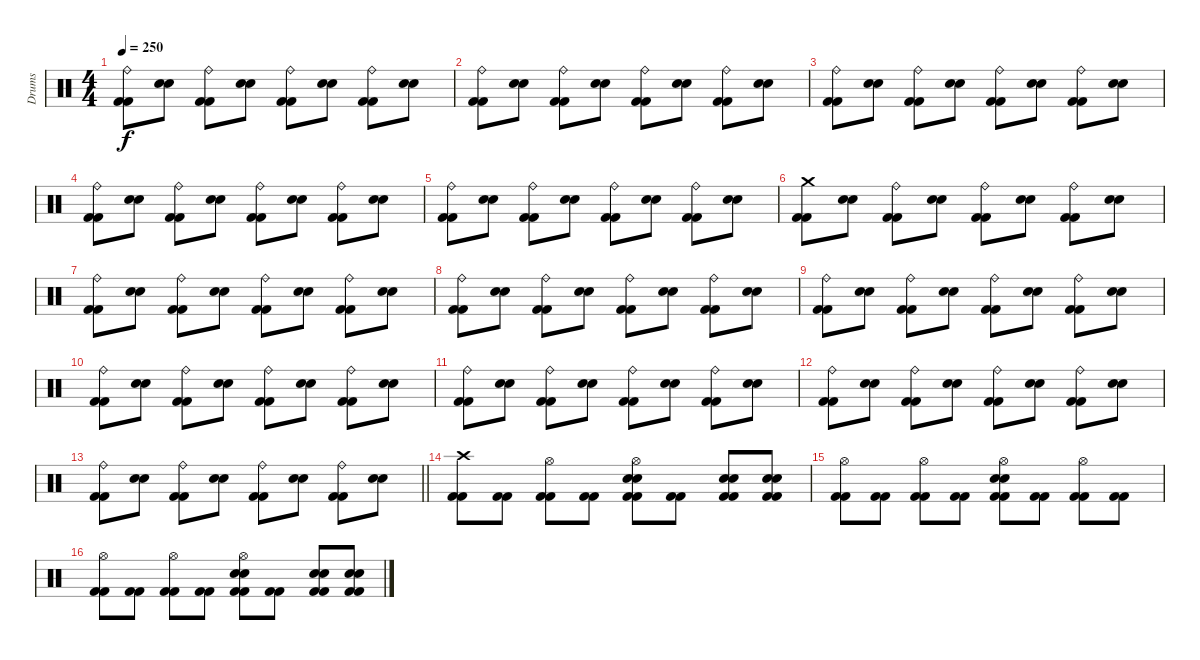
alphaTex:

\track ("Drums" "Drums") {instrument percussion}
\staff {score}
\articulation defaults
\ts (4 4)
\tempo 250
\clef neutral
\ks c
("Kick (hit) 2" "Kick (hit) 2" "Ride (bell)").8{dy f} ("Electric Snare (hit)" "Electric Snare (hit)").8 ("Kick (hit) 2" "Kick (hit) 2" "Ride (bell)").8 ("Electric Snare (hit)" "Electric Snare (hit)").8 ("Kick (hit) 2" "Kick (hit) 2" "Ride (bell)").8 ("Electric Snare (hit)" "Electric Snare (hit)").8 ("Kick (hit) 2" "Kick (hit) 2" "Ride (bell)").8 ("Electric Snare (hit)" "Electric Snare (hit)").8 |
("Kick (hit) 2" "Kick (hit) 2" "Ride (bell)").8 ("Electric Snare (hit)" "Electric Snare (hit)").8 ("Kick (hit) 2" "Kick (hit) 2" "Ride (bell)").8 ("Electric Snare (hit)" "Electric Snare (hit)").8 ("Kick (hit) 2" "Kick (hit) 2" "Ride (bell)").8 ("Electric Snare (hit)" "Electric Snare (hit)").8 ("Kick (hit) 2" "Kick (hit) 2" "Ride (bell)").8 ("Electric Snare (hit)" "Electric Snare (hit)").8 |
("Kick (hit) 2" "Kick (hit) 2" "Ride (bell)").8 ("Electric Snare (hit)" "Electric Snare (hit)").8 ("Kick (hit) 2" "Kick (hit) 2" "Ride (bell)").8 ("Electric Snare (hit)" "Electric Snare (hit)").8 ("Kick (hit) 2" "Kick (hit) 2" "Ride (bell)").8 ("Electric Snare (hit)" "Electric Snare (hit)").8 ("Kick (hit) 2" "Kick (hit) 2" "Ride (bell)").8 ("Electric Snare (hit)" "Electric Snare (hit)").8 |
("Kick (hit) 2" "Kick (hit) 2" "Ride (bell)").8 ("Electric Snare (hit)" "Electric Snare (hit)").8 ("Kick (hit) 2" "Kick (hit) 2" "Ride (bell)").8 ("Electric Snare (hit)" "Electric Snare (hit)").8 ("Kick (hit) 2" "Kick (hit) 2" "Ride (bell)").8 ("Electric Snare (hit)" "Electric Snare (hit)").8 ("Kick (hit) 2" "Kick (hit) 2" "Ride (bell)").8 ("Electric Snare (hit)" "Electric Snare (hit)").8 |
("Kick (hit) 2" "Kick (hit) 2" "Ride (bell)").8 ("Electric Snare (hit)" "Electric Snare (hit)").8 ("Kick (hit) 2" "Kick (hit) 2" "Ride (bell)").8 ("Electric Snare (hit)" "Electric Snare (hit)").8 ("Kick (hit) 2" "Kick (hit) 2" "Ride (bell)").8 ("Electric Snare (hit)" "Electric Snare (hit)").8 ("Kick (hit) 2" "Kick (hit) 2" "Ride (bell)").8 ("Electric Snare (hit)" "Electric Snare (hit)").8 |
("Kick (hit) 2" "Kick (hit) 2" "Crash medium (hit)").8 ("Electric Snare (hit)" "Electric Snare (hit)").8 ("Kick (hit) 2" "Kick (hit) 2" "Ride (bell)").8 ("Electric Snare (hit)" "Electric Snare (hit)").8 ("Kick (hit) 2" "Kick (hit) 2" "Ride (bell)").8 ("Electric Snare (hit)" "Electric Snare (hit)").8 ("Kick (hit) 2" "Kick (hit) 2" "Ride (bell)").8 ("Electric Snare (hit)" "Electric Snare (hit)").8 |
("Kick (hit) 2" "Kick (hit) 2" "Ride (bell)").8 ("Electric Snare (hit)" "Electric Snare (hit)").8 ("Kick (hit) 2" "Kick (hit) 2" "Ride (bell)").8 ("Electric Snare (hit)" "Electric Snare (hit)").8 ("Kick (hit) 2" "Kick (hit) 2" "Ride (bell)").8 ("Electric Snare (hit)" "Electric Snare (hit)").8 ("Kick (hit) 2" "Kick (hit) 2" "Ride (bell)").8 ("Electric Snare (hit)" "Electric Snare (hit)").8 |
("Kick (hit) 2" "Kick (hit) 2" "Ride (bell)").8 ("Electric Snare (hit)" "Electric Snare (hit)").8 ("Kick (hit) 2" "Kick (hit) 2" "Ride (bell)").8 ("Electric Snare (hit)" "Electric Snare (hit)").8 ("Kick (hit) 2" "Kick (hit) 2" "Ride (bell)").8 ("Electric Snare (hit)" "Electric Snare (hit)").8 ("Kick (hit) 2" "Kick (hit) 2" "Ride (bell)").8 ("Electric Snare (hit)" "Electric Snare (hit)").8 |
("Kick (hit) 2" "Kick (hit) 2" "Ride (bell)").8 ("Electric Snare (hit)" "Electric Snare (hit)").8 ("Kick (hit) 2" "Kick (hit) 2" "Ride (bell)").8 ("Electric Snare (hit)" "Electric Snare (hit)").8 ("Kick (hit) 2" "Kick (hit) 2" "Ride (bell)").8 ("Electric Snare (hit)" "Electric Snare (hit)").8 ("Kick (hit) 2" "Kick (hit) 2" "Ride (bell)").8 ("Electric Snare (hit)" "Electric Snare (hit)").8 |
("Kick (hit) 2" "Kick (hit) 2" "Ride (bell)").8 ("Electric Snare (hit)" "Electric Snare (hit)").8 ("Kick (hit) 2" "Kick (hit) 2" "Ride (bell)").8 ("Electric Snare (hit)" "Electric Snare (hit)").8 ("Kick (hit) 2" "Kick (hit) 2" "Ride (bell)").8 ("Electric Snare (hit)" "Electric Snare (hit)").8 ("Kick (hit) 2" "Kick (hit) 2" "Ride (bell)").8 ("Electric Snare (hit)" "Electric Snare (hit)").8 |
("Kick (hit) 2" "Kick (hit) 2" "Ride (bell)").8 ("Electric Snare (hit)" "Electric Snare (hit)").8 ("Kick (hit) 2" "Kick (hit) 2" "Ride (bell)").8 ("Electric Snare (hit)" "Electric Snare (hit)").8 ("Kick (hit) 2" "Kick (hit) 2" "Ride (bell)").8 ("Electric Snare (hit)" "Electric Snare (hit)").8 ("Kick (hit) 2" "Kick (hit) 2" "Ride (bell)").8 ("Electric Snare (hit)" "Electric Snare (hit)").8 |
("Kick (hit) 2" "Kick (hit) 2" "Ride (bell)").8 ("Electric Snare (hit)" "Electric Snare (hit)").8 ("Kick (hit) 2" "Kick (hit) 2" "Ride (bell)").8 ("Electric Snare (hit)" "Electric Snare (hit)").8 ("Kick (hit) 2" "Kick (hit) 2" "Ride (bell)").8 ("Electric Snare (hit)" "Electric Snare (hit)").8 ("Kick (hit) 2" "Kick (hit) 2" "Ride (bell)").8 ("Electric Snare (hit)" "Electric Snare (hit)").8 |
\barLineRight lightlight
("Kick (hit) 2" "Kick (hit) 2" "Ride (bell)").8 ("Electric Snare (hit)" "Electric Snare (hit)").8 ("Kick (hit) 2" "Kick (hit) 2" "Ride (bell)").8 ("Electric Snare (hit)" "Electric Snare (hit)").8 ("Kick (hit) 2" "Kick (hit) 2" "Ride (bell)").8 ("Electric Snare (hit)" "Electric Snare (hit)").8 ("Kick (hit) 2" "Kick (hit) 2" "Ride (bell)").8 ("Electric Snare (hit)" "Electric Snare (hit)").8 |
("Kick (hit) 2" "Kick (hit) 2" "Crash high (hit)").8 ("Kick (hit) 2" "Kick (hit) 2").8 ("Kick (hit) 2" "Kick (hit) 2" "Hi-Hat (open)").8 ("Kick (hit) 2" "Kick (hit) 2").8 ("Kick (hit) 2" "Kick (hit) 2" "Electric Snare (hit)" "Electric Snare (hit)" "Hi-Hat (open)").8 ("Kick (hit) 2" "Kick (hit) 2").8 ("Kick (hit) 2" "Kick (hit) 2" "Electric Snare (hit)" "Electric Snare (hit)").8 ("Kick (hit) 2" "Kick (hit) 2" "Electric Snare (hit)" "Electric Snare (hit)").8 |
("Kick (hit) 2" "Kick (hit) 2" "Hi-Hat (open)").8 ("Kick (hit) 2" "Kick (hit) 2").8 ("Kick (hit) 2" "Kick (hit) 2" "Hi-Hat (open)").8 ("Kick (hit) 2" "Kick (hit) 2").8 ("Kick (hit) 2" "Kick (hit) 2" "Electric Snare (hit)" "Electric Snare (hit)" "Hi-Hat (open)").8 ("Kick (hit) 2" "Kick (hit) 2").8 ("Kick (hit) 2" "Kick (hit) 2" "Hi-Hat (open)").8 ("Kick (hit) 2" "Kick (hit) 2").8 |
("Kick (hit) 2" "Kick (hit) 2" "Hi-Hat (open)").8 ("Kick (hit) 2" "Kick (hit) 2").8 ("Kick (hit) 2" "Kick (hit) 2" "Hi-Hat (open)").8 ("Kick (hit) 2" "Kick (hit) 2").8 ("Kick (hit) 2" "Kick (hit) 2" "Electric Snare (hit)" "Electric Snare (hit)" "Hi-Hat (open)").8 ("Kick (hit) 2" "Kick (hit) 2").8 ("Kick (hit) 2" "Kick (hit) 2" "Electric Snare (hit)" "Electric Snare (hit)").8 ("Kick (hit) 2" "Kick (hit) 2" "Electric Snare (hit)" "Electric Snare (hit)").8
